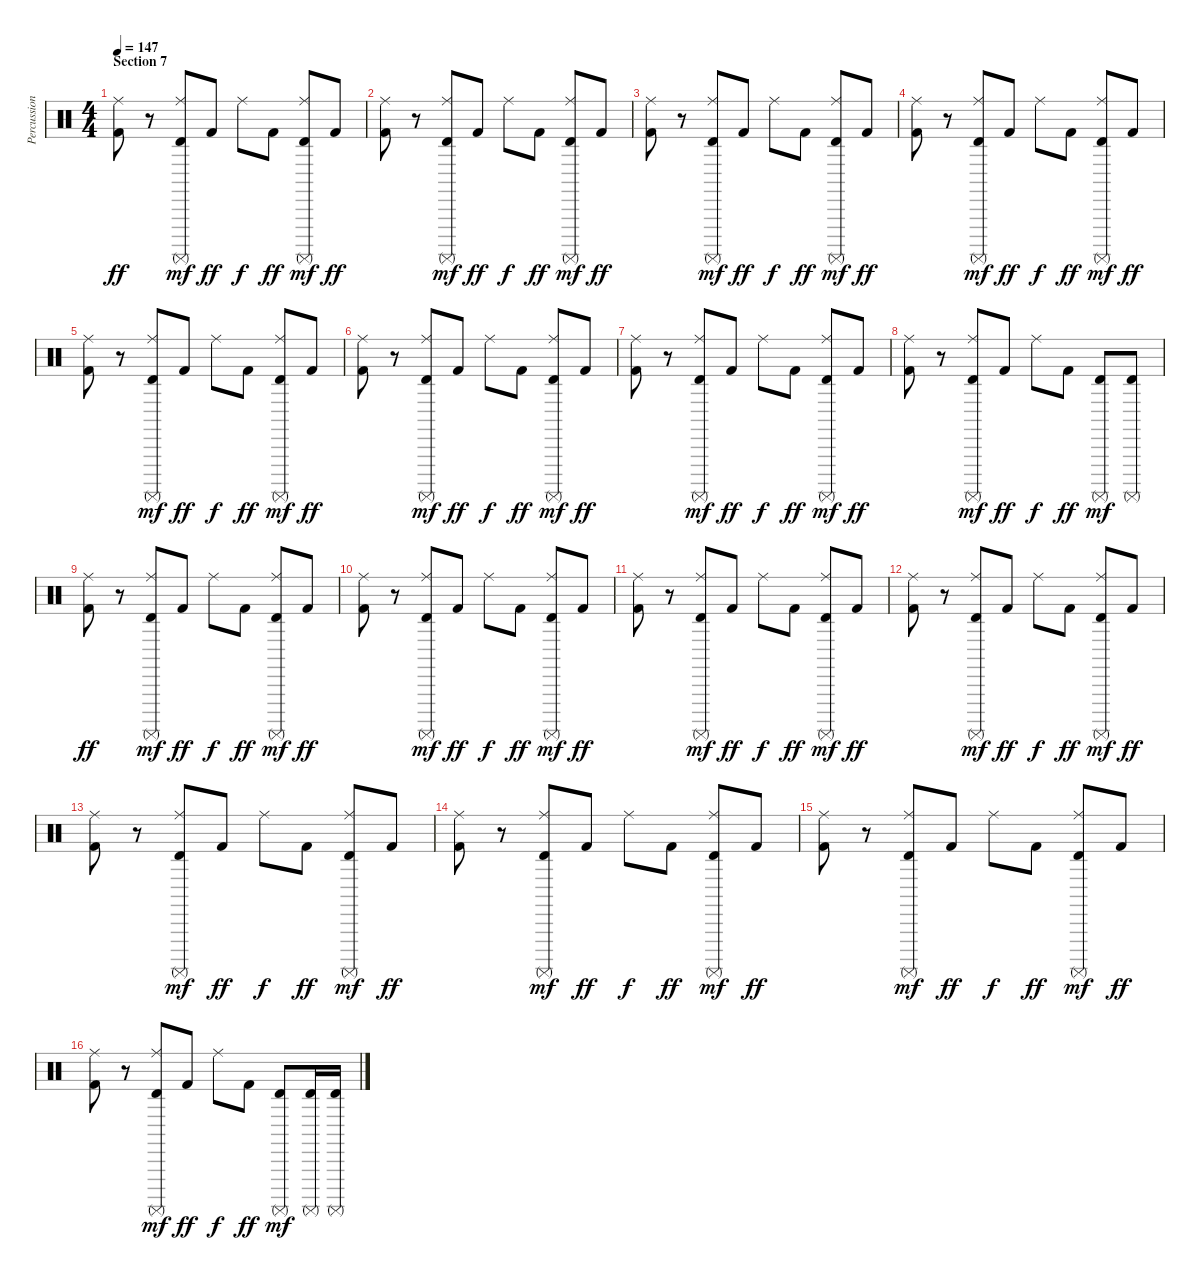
\track ("Percussion" "Percussion") {instrument percussion}
\staff {score}
\articulation defaults
\ts (4 4)
\section ("" "Section 7")
\tempo 147
\clef neutral
\ks c
("Ride (middle)" "Kick (hit) 2").8{dy ff} r.8 ("Ride (middle)" "Surdo (mute)" "Timbale high (hit)").8{dy mf} "Kick (hit) 2".8{dy ff} "Ride (middle)".8{dy f} "Kick (hit) 2".8{dy ff} ("Ride (middle)" "Surdo (mute)" "Timbale high (hit)").8{dy mf} "Kick (hit) 2".8{dy ff} |
("Ride (middle)" "Kick (hit) 2").8 r.8 ("Ride (middle)" "Surdo (mute)" "Timbale high (hit)").8{dy mf} "Kick (hit) 2".8{dy ff} "Ride (middle)".8{dy f} "Kick (hit) 2".8{dy ff} ("Ride (middle)" "Surdo (mute)" "Timbale high (hit)").8{dy mf} "Kick (hit) 2".8{dy ff} |
("Ride (middle)" "Kick (hit) 2").8 r.8 ("Ride (middle)" "Surdo (mute)" "Timbale high (hit)").8{dy mf} "Kick (hit) 2".8{dy ff} "Ride (middle)".8{dy f} "Kick (hit) 2".8{dy ff} ("Ride (middle)" "Surdo (mute)" "Timbale high (hit)").8{dy mf} "Kick (hit) 2".8{dy ff} |
("Ride (middle)" "Kick (hit) 2").8 r.8 ("Ride (middle)" "Surdo (mute)" "Timbale high (hit)").8{dy mf} "Kick (hit) 2".8{dy ff} "Ride (middle)".8{dy f} "Kick (hit) 2".8{dy ff} ("Ride (middle)" "Surdo (mute)" "Timbale high (hit)").8{dy mf} "Kick (hit) 2".8{dy ff} |
("Ride (middle)" "Kick (hit) 2").8 r.8 ("Ride (middle)" "Surdo (mute)" "Timbale high (hit)").8{dy mf} "Kick (hit) 2".8{dy ff} "Ride (middle)".8{dy f} "Kick (hit) 2".8{dy ff} ("Ride (middle)" "Surdo (mute)" "Timbale high (hit)").8{dy mf} "Kick (hit) 2".8{dy ff} |
("Ride (middle)" "Kick (hit) 2").8 r.8 ("Ride (middle)" "Surdo (mute)" "Timbale high (hit)").8{dy mf} "Kick (hit) 2".8{dy ff} "Ride (middle)".8{dy f} "Kick (hit) 2".8{dy ff} ("Ride (middle)" "Surdo (mute)" "Timbale high (hit)").8{dy mf} "Kick (hit) 2".8{dy ff} |
("Ride (middle)" "Kick (hit) 2").8 r.8 ("Ride (middle)" "Surdo (mute)" "Timbale high (hit)").8{dy mf} "Kick (hit) 2".8{dy ff} "Ride (middle)".8{dy f} "Kick (hit) 2".8{dy ff} ("Ride (middle)" "Surdo (mute)" "Timbale high (hit)").8{dy mf} "Kick (hit) 2".8{dy ff} |
("Ride (middle)" "Kick (hit) 2").8 r.8 ("Ride (middle)" "Surdo (mute)" "Timbale high (hit)").8{dy mf} "Kick (hit) 2".8{dy ff} "Ride (middle)".8{dy f} "Kick (hit) 2".8{dy ff} ("Surdo (mute)" "Timbale high (hit)").8{dy mf} ("Surdo (mute)" "Timbale high (hit)").8 |
("Ride (middle)" "Kick (hit) 2").8{dy ff} r.8 ("Ride (middle)" "Surdo (mute)" "Timbale high (hit)").8{dy mf} "Kick (hit) 2".8{dy ff} "Ride (middle)".8{dy f} "Kick (hit) 2".8{dy ff} ("Ride (middle)" "Surdo (mute)" "Timbale high (hit)").8{dy mf} "Kick (hit) 2".8{dy ff} |
("Ride (middle)" "Kick (hit) 2").8 r.8 ("Ride (middle)" "Surdo (mute)" "Timbale high (hit)").8{dy mf} "Kick (hit) 2".8{dy ff} "Ride (middle)".8{dy f} "Kick (hit) 2".8{dy ff} ("Ride (middle)" "Surdo (mute)" "Timbale high (hit)").8{dy mf} "Kick (hit) 2".8{dy ff} |
("Ride (middle)" "Kick (hit) 2").8 r.8 ("Ride (middle)" "Surdo (mute)" "Timbale high (hit)").8{dy mf} "Kick (hit) 2".8{dy ff} "Ride (middle)".8{dy f} "Kick (hit) 2".8{dy ff} ("Ride (middle)" "Surdo (mute)" "Timbale high (hit)").8{dy mf} "Kick (hit) 2".8{dy ff} |
("Ride (middle)" "Kick (hit) 2").8 r.8 ("Ride (middle)" "Surdo (mute)" "Timbale high (hit)").8{dy mf} "Kick (hit) 2".8{dy ff} "Ride (middle)".8{dy f} "Kick (hit) 2".8{dy ff} ("Ride (middle)" "Surdo (mute)" "Timbale high (hit)").8{dy mf} "Kick (hit) 2".8{dy ff} |
("Ride (middle)" "Kick (hit) 2").8 r.8 ("Ride (middle)" "Surdo (mute)" "Timbale high (hit)").8{dy mf} "Kick (hit) 2".8{dy ff} "Ride (middle)".8{dy f} "Kick (hit) 2".8{dy ff} ("Ride (middle)" "Surdo (mute)" "Timbale high (hit)").8{dy mf} "Kick (hit) 2".8{dy ff} |
("Ride (middle)" "Kick (hit) 2").8 r.8 ("Ride (middle)" "Surdo (mute)" "Timbale high (hit)").8{dy mf} "Kick (hit) 2".8{dy ff} "Ride (middle)".8{dy f} "Kick (hit) 2".8{dy ff} ("Ride (middle)" "Surdo (mute)" "Timbale high (hit)").8{dy mf} "Kick (hit) 2".8{dy ff} |
("Ride (middle)" "Kick (hit) 2").8 r.8 ("Ride (middle)" "Surdo (mute)" "Timbale high (hit)").8{dy mf} "Kick (hit) 2".8{dy ff} "Ride (middle)".8{dy f} "Kick (hit) 2".8{dy ff} ("Ride (middle)" "Surdo (mute)" "Timbale high (hit)").8{dy mf} "Kick (hit) 2".8{dy ff} |
("Ride (middle)" "Kick (hit) 2").8 r.8 ("Ride (middle)" "Surdo (mute)" "Timbale high (hit)").8{dy mf} "Kick (hit) 2".8{dy ff} "Ride (middle)".8{dy f} "Kick (hit) 2".8{dy ff} ("Surdo (mute)" "Timbale high (hit)").8{dy mf} ("Surdo (mute)" "Timbale high (hit)").16 ("Surdo (mute)" "Timbale high (hit)").16
